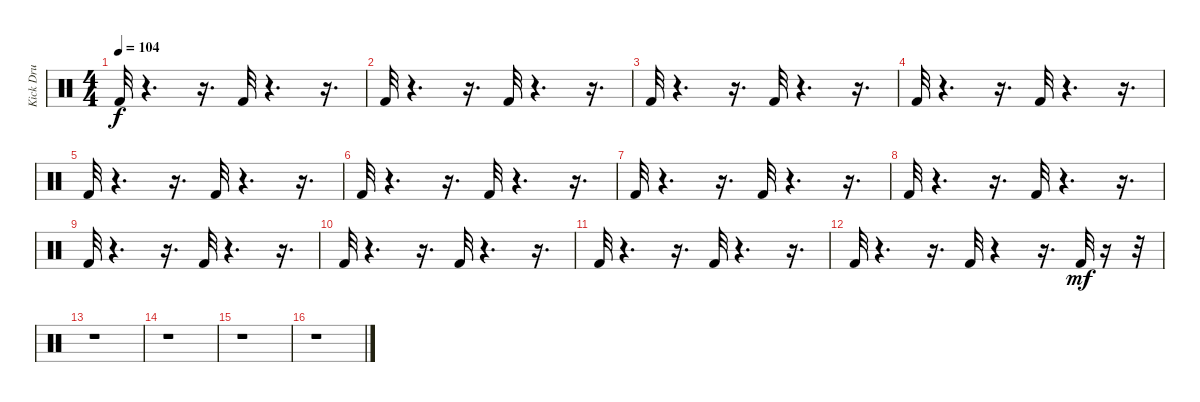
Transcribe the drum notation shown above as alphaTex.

\track ("  Kick Drum 1" "  Kick Dru") {instrument percussion}
\staff {score}
\articulation defaults
\ts (4 4)
\tempo 104
\clef neutral
\ks c "Kick (hit) 2".32{dy f}
r.4{d} r.16{d} "Kick (hit) 2".32 r.4{d} r.16{d} |
"Kick (hit) 2".32 r.4{d} r.16{d} "Kick (hit) 2".32 r.4{d} r.16{d} |
"Kick (hit) 2".32 r.4{d} r.16{d} "Kick (hit) 2".32 r.4{d} r.16{d} |
"Kick (hit) 2".32 r.4{d} r.16{d} "Kick (hit) 2".32 r.4{d} r.16{d} |
"Kick (hit) 2".32 r.4{d} r.16{d} "Kick (hit) 2".32 r.4{d} r.16{d} |
"Kick (hit) 2".32 r.4{d} r.16{d} "Kick (hit) 2".32 r.4{d} r.16{d} |
"Kick (hit) 2".32 r.4{d} r.16{d} "Kick (hit) 2".32 r.4{d} r.16{d} |
"Kick (hit) 2".32 r.4{d} r.16{d} "Kick (hit) 2".32 r.4{d} r.16{d} |
"Kick (hit) 2".32 r.4{d} r.16{d} "Kick (hit) 2".32 r.4{d} r.16{d} |
"Kick (hit) 2".32 r.4{d} r.16{d} "Kick (hit) 2".32 r.4{d} r.16{d} |
"Kick (hit) 2".32 r.4{d} r.16{d} "Kick (hit) 2".32 r.4{d} r.16{d} |
"Kick (hit) 2".32 r.4{d} r.16{d} "Kick (hit) 2".32 r.4 r.16{d} "Kick (hit) 2".32{dy mf} r.16 r.32 |
r.1 |
r.1 |
r.1 |
r.1
